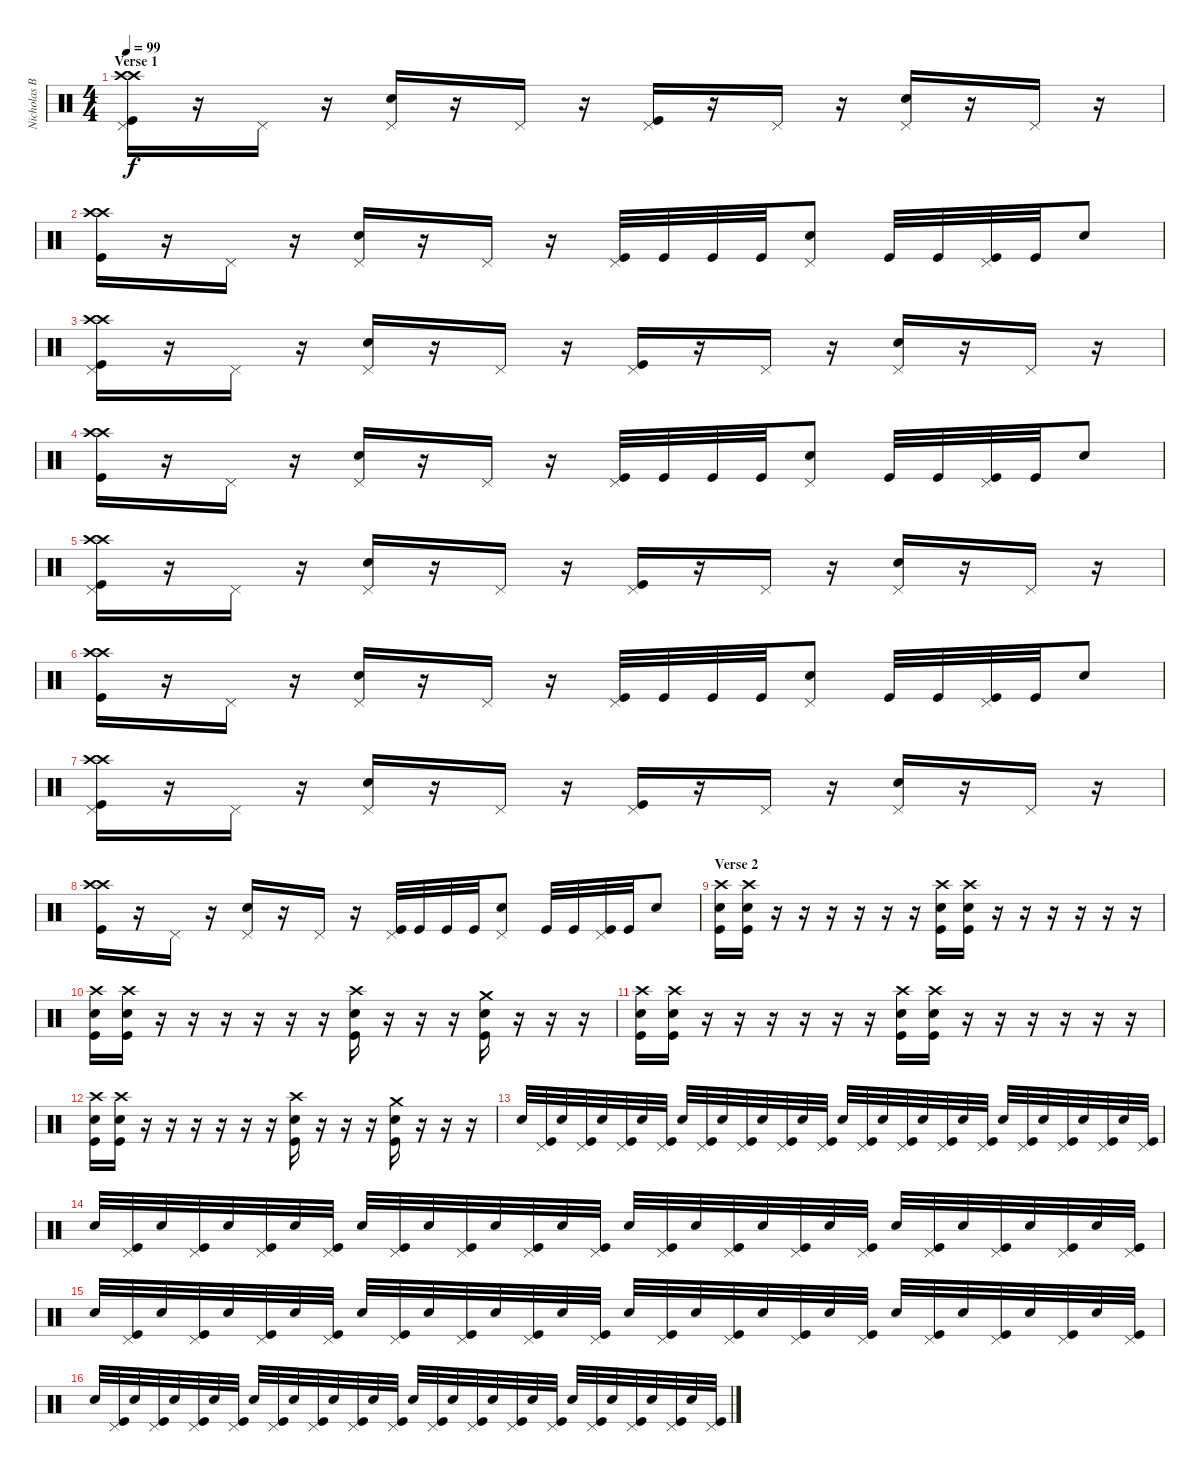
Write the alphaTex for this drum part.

\track ("Nicholas Barker" "Nicholas B") {instrument percussion}
\staff {score}
\articulation defaults
\ts (4 4)
\section ("" "Verse 1")
\tempo 99
\clef neutral
\ks c
("Crash high (hit)" "Crash high (hit)" "Pedal Hi-Hat (hit)" "Kick (hit)").16{dy f} r.16 "Pedal Hi-Hat (hit)".16 r.16 ("Pedal Hi-Hat (hit)" "Snare (hit) 2").16 r.16 "Pedal Hi-Hat (hit)".16 r.16 ("Pedal Hi-Hat (hit)" "Kick (hit)").16 r.16 "Pedal Hi-Hat (hit)".16 r.16 ("Pedal Hi-Hat (hit)" "Snare (hit) 2").16 r.16 "Pedal Hi-Hat (hit)".16 r.16 |
("Crash high (hit)" "Crash high (hit)" "Kick (hit)").16 r.16 "Pedal Hi-Hat (hit)".16 r.16 ("Pedal Hi-Hat (hit)" "Snare (hit) 2").16 r.16 "Pedal Hi-Hat (hit)".16 r.16 ("Pedal Hi-Hat (hit)" "Kick (hit)").32 "Kick (hit)".32 "Kick (hit)".32 "Kick (hit)".32 ("Pedal Hi-Hat (hit)" "Snare (hit) 2").8 "Kick (hit)".32 "Kick (hit)".32 ("Pedal Hi-Hat (hit)" "Kick (hit)").32 "Kick (hit)".32 "Snare (hit) 2".8 |
("Crash high (hit)" "Crash high (hit)" "Pedal Hi-Hat (hit)" "Kick (hit)").16 r.16 "Pedal Hi-Hat (hit)".16 r.16 ("Pedal Hi-Hat (hit)" "Snare (hit) 2").16 r.16 "Pedal Hi-Hat (hit)".16 r.16 ("Pedal Hi-Hat (hit)" "Kick (hit)").16 r.16 "Pedal Hi-Hat (hit)".16 r.16 ("Pedal Hi-Hat (hit)" "Snare (hit) 2").16 r.16 "Pedal Hi-Hat (hit)".16 r.16 |
("Crash high (hit)" "Crash high (hit)" "Kick (hit)").16 r.16 "Pedal Hi-Hat (hit)".16 r.16 ("Pedal Hi-Hat (hit)" "Snare (hit) 2").16 r.16 "Pedal Hi-Hat (hit)".16 r.16 ("Pedal Hi-Hat (hit)" "Kick (hit)").32 "Kick (hit)".32 "Kick (hit)".32 "Kick (hit)".32 ("Pedal Hi-Hat (hit)" "Snare (hit) 2").8 "Kick (hit)".32 "Kick (hit)".32 ("Pedal Hi-Hat (hit)" "Kick (hit)").32 "Kick (hit)".32 "Snare (hit) 2".8 |
("Crash high (hit)" "Crash high (hit)" "Pedal Hi-Hat (hit)" "Kick (hit)").16 r.16 "Pedal Hi-Hat (hit)".16 r.16 ("Pedal Hi-Hat (hit)" "Snare (hit) 2").16 r.16 "Pedal Hi-Hat (hit)".16 r.16 ("Pedal Hi-Hat (hit)" "Kick (hit)").16 r.16 "Pedal Hi-Hat (hit)".16 r.16 ("Pedal Hi-Hat (hit)" "Snare (hit) 2").16 r.16 "Pedal Hi-Hat (hit)".16 r.16 |
("Crash high (hit)" "Crash high (hit)" "Kick (hit)").16 r.16 "Pedal Hi-Hat (hit)".16 r.16 ("Pedal Hi-Hat (hit)" "Snare (hit) 2").16 r.16 "Pedal Hi-Hat (hit)".16 r.16 ("Pedal Hi-Hat (hit)" "Kick (hit)").32 "Kick (hit)".32 "Kick (hit)".32 "Kick (hit)".32 ("Pedal Hi-Hat (hit)" "Snare (hit) 2").8 "Kick (hit)".32 "Kick (hit)".32 ("Pedal Hi-Hat (hit)" "Kick (hit)").32 "Kick (hit)".32 "Snare (hit) 2".8 |
("Crash high (hit)" "Crash high (hit)" "Pedal Hi-Hat (hit)" "Kick (hit)").16 r.16 "Pedal Hi-Hat (hit)".16 r.16 ("Pedal Hi-Hat (hit)" "Snare (hit) 2").16 r.16 "Pedal Hi-Hat (hit)".16 r.16 ("Pedal Hi-Hat (hit)" "Kick (hit)").16 r.16 "Pedal Hi-Hat (hit)".16 r.16 ("Pedal Hi-Hat (hit)" "Snare (hit) 2").16 r.16 "Pedal Hi-Hat (hit)".16 r.16 |
("Crash high (hit)" "Crash high (hit)" "Kick (hit)").16 r.16 "Pedal Hi-Hat (hit)".16 r.16 ("Pedal Hi-Hat (hit)" "Snare (hit) 2").16 r.16 "Pedal Hi-Hat (hit)".16 r.16 ("Pedal Hi-Hat (hit)" "Kick (hit)").32 "Kick (hit)".32 "Kick (hit)".32 "Kick (hit)".32 ("Pedal Hi-Hat (hit)" "Snare (hit) 2").8 "Kick (hit)".32 "Kick (hit)".32 ("Pedal Hi-Hat (hit)" "Kick (hit)").32 "Kick (hit)".32 "Snare (hit) 2".8 |
\section ("" "Verse 2")
("Crash high (hit)" "Snare (hit) 2" "Kick (hit)").16 ("Crash high (hit)" "Snare (hit) 2" "Kick (hit)").16 r.16 r.16 r.16 r.16 r.16 r.16 ("Crash high (hit)" "Snare (hit) 2" "Kick (hit)").16 ("Crash high (hit)" "Snare (hit) 2" "Kick (hit)").16 r.16 r.16 r.16 r.16 r.16 r.16 |
("Crash high (hit)" "Snare (hit) 2" "Kick (hit)").16 ("Crash high (hit)" "Snare (hit) 2" "Kick (hit)").16 r.16 r.16 r.16 r.16 r.16 r.16 ("Crash high (hit)" "Snare (hit) 2" "Kick (hit)").16 r.16 r.16 r.16 ("Crash medium (hit)" "Snare (hit) 2" "Kick (hit)").16 r.16 r.16 r.16 |
("Crash high (hit)" "Snare (hit) 2" "Kick (hit)").16 ("Crash high (hit)" "Snare (hit) 2" "Kick (hit)").16 r.16 r.16 r.16 r.16 r.16 r.16 ("Crash high (hit)" "Snare (hit) 2" "Kick (hit)").16 ("Crash high (hit)" "Snare (hit) 2" "Kick (hit)").16 r.16 r.16 r.16 r.16 r.16 r.16 |
("Crash high (hit)" "Snare (hit) 2" "Kick (hit)").16 ("Crash high (hit)" "Snare (hit) 2" "Kick (hit)").16 r.16 r.16 r.16 r.16 r.16 r.16 ("Crash high (hit)" "Snare (hit) 2" "Kick (hit)").16 r.16 r.16 r.16 ("Crash medium (hit)" "Snare (hit) 2" "Kick (hit)").16 r.16 r.16 r.16 |
"Snare (hit) 2".32 ("Pedal Hi-Hat (hit)" "Kick (hit)").32 "Snare (hit) 2".32 ("Pedal Hi-Hat (hit)" "Kick (hit)").32 "Snare (hit) 2".32 ("Pedal Hi-Hat (hit)" "Kick (hit)").32 "Snare (hit) 2".32 ("Pedal Hi-Hat (hit)" "Kick (hit)").32 "Snare (hit) 2".32 ("Pedal Hi-Hat (hit)" "Kick (hit)").32 "Snare (hit) 2".32 ("Pedal Hi-Hat (hit)" "Kick (hit)").32 "Snare (hit) 2".32 ("Pedal Hi-Hat (hit)" "Kick (hit)").32 "Snare (hit) 2".32 ("Pedal Hi-Hat (hit)" "Kick (hit)").32 "Snare (hit) 2".32 ("Pedal Hi-Hat (hit)" "Kick (hit)").32 "Snare (hit) 2".32 ("Pedal Hi-Hat (hit)" "Kick (hit)").32 "Snare (hit) 2".32 ("Pedal Hi-Hat (hit)" "Kick (hit)").32 "Snare (hit) 2".32 ("Pedal Hi-Hat (hit)" "Kick (hit)").32 "Snare (hit) 2".32 ("Pedal Hi-Hat (hit)" "Kick (hit)").32 "Snare (hit) 2".32 ("Pedal Hi-Hat (hit)" "Kick (hit)").32 "Snare (hit) 2".32 ("Pedal Hi-Hat (hit)" "Kick (hit)").32 "Snare (hit) 2".32 ("Pedal Hi-Hat (hit)" "Kick (hit)").32 |
"Snare (hit) 2".32 ("Pedal Hi-Hat (hit)" "Kick (hit)").32 "Snare (hit) 2".32 ("Pedal Hi-Hat (hit)" "Kick (hit)").32 "Snare (hit) 2".32 ("Pedal Hi-Hat (hit)" "Kick (hit)").32 "Snare (hit) 2".32 ("Pedal Hi-Hat (hit)" "Kick (hit)").32 "Snare (hit) 2".32 ("Pedal Hi-Hat (hit)" "Kick (hit)").32 "Snare (hit) 2".32 ("Pedal Hi-Hat (hit)" "Kick (hit)").32 "Snare (hit) 2".32 ("Pedal Hi-Hat (hit)" "Kick (hit)").32 "Snare (hit) 2".32 ("Pedal Hi-Hat (hit)" "Kick (hit)").32 "Snare (hit) 2".32 ("Pedal Hi-Hat (hit)" "Kick (hit)").32 "Snare (hit) 2".32 ("Pedal Hi-Hat (hit)" "Kick (hit)").32 "Snare (hit) 2".32 ("Pedal Hi-Hat (hit)" "Kick (hit)").32 "Snare (hit) 2".32 ("Pedal Hi-Hat (hit)" "Kick (hit)").32 "Snare (hit) 2".32 ("Pedal Hi-Hat (hit)" "Kick (hit)").32 "Snare (hit) 2".32 ("Pedal Hi-Hat (hit)" "Kick (hit)").32 "Snare (hit) 2".32 ("Pedal Hi-Hat (hit)" "Kick (hit)").32 "Snare (hit) 2".32 ("Pedal Hi-Hat (hit)" "Kick (hit)").32 |
"Snare (hit) 2".32 ("Pedal Hi-Hat (hit)" "Kick (hit)").32 "Snare (hit) 2".32 ("Pedal Hi-Hat (hit)" "Kick (hit)").32 "Snare (hit) 2".32 ("Pedal Hi-Hat (hit)" "Kick (hit)").32 "Snare (hit) 2".32 ("Pedal Hi-Hat (hit)" "Kick (hit)").32 "Snare (hit) 2".32 ("Pedal Hi-Hat (hit)" "Kick (hit)").32 "Snare (hit) 2".32 ("Pedal Hi-Hat (hit)" "Kick (hit)").32 "Snare (hit) 2".32 ("Pedal Hi-Hat (hit)" "Kick (hit)").32 "Snare (hit) 2".32 ("Pedal Hi-Hat (hit)" "Kick (hit)").32 "Snare (hit) 2".32 ("Pedal Hi-Hat (hit)" "Kick (hit)").32 "Snare (hit) 2".32 ("Pedal Hi-Hat (hit)" "Kick (hit)").32 "Snare (hit) 2".32 ("Pedal Hi-Hat (hit)" "Kick (hit)").32 "Snare (hit) 2".32 ("Pedal Hi-Hat (hit)" "Kick (hit)").32 "Snare (hit) 2".32 ("Pedal Hi-Hat (hit)" "Kick (hit)").32 "Snare (hit) 2".32 ("Pedal Hi-Hat (hit)" "Kick (hit)").32 "Snare (hit) 2".32 ("Pedal Hi-Hat (hit)" "Kick (hit)").32 "Snare (hit) 2".32 ("Pedal Hi-Hat (hit)" "Kick (hit)").32 |
"Snare (hit) 2".32 ("Pedal Hi-Hat (hit)" "Kick (hit)").32 "Snare (hit) 2".32 ("Pedal Hi-Hat (hit)" "Kick (hit)").32 "Snare (hit) 2".32 ("Pedal Hi-Hat (hit)" "Kick (hit)").32 "Snare (hit) 2".32 ("Pedal Hi-Hat (hit)" "Kick (hit)").32 "Snare (hit) 2".32 ("Pedal Hi-Hat (hit)" "Kick (hit)").32 "Snare (hit) 2".32 ("Pedal Hi-Hat (hit)" "Kick (hit)").32 "Snare (hit) 2".32 ("Pedal Hi-Hat (hit)" "Kick (hit)").32 "Snare (hit) 2".32 ("Pedal Hi-Hat (hit)" "Kick (hit)").32 "Snare (hit) 2".32 ("Pedal Hi-Hat (hit)" "Kick (hit)").32 "Snare (hit) 2".32 ("Pedal Hi-Hat (hit)" "Kick (hit)").32 "Snare (hit) 2".32 ("Pedal Hi-Hat (hit)" "Kick (hit)").32 "Snare (hit) 2".32 ("Pedal Hi-Hat (hit)" "Kick (hit)").32 "Snare (hit) 2".32 ("Pedal Hi-Hat (hit)" "Kick (hit)").32 "Snare (hit) 2".32 ("Pedal Hi-Hat (hit)" "Kick (hit)").32 "Snare (hit) 2".32 ("Pedal Hi-Hat (hit)" "Kick (hit)").32 "Snare (hit) 2".32 ("Pedal Hi-Hat (hit)" "Kick (hit)").32
